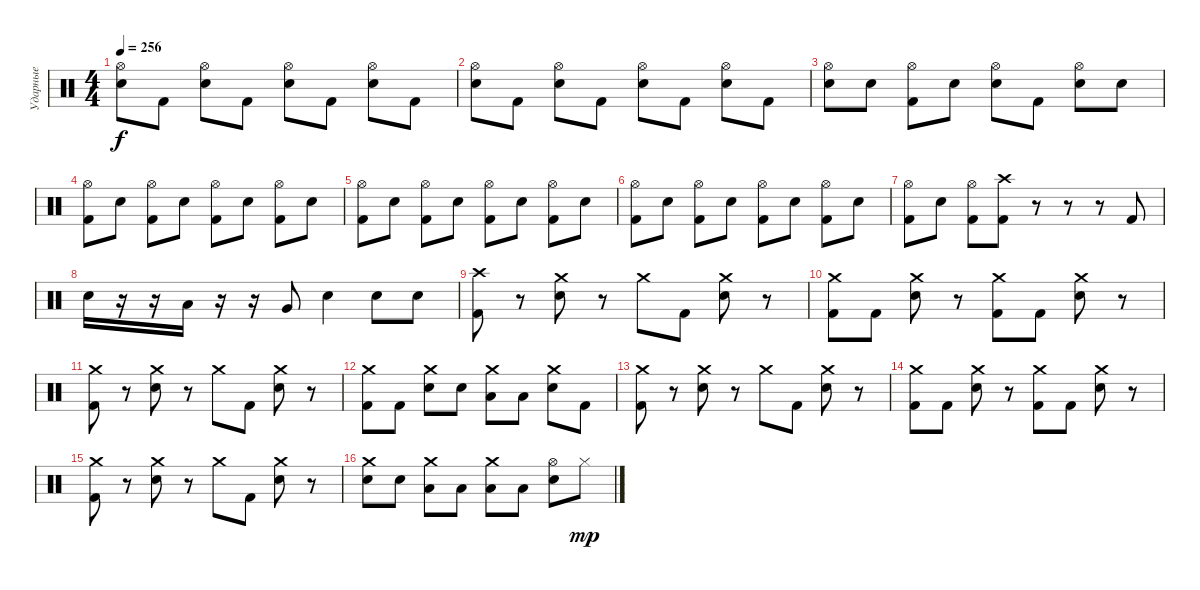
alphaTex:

\track ("Ударные" "Ударные") {instrument percussion}
\staff {score}
\articulation defaults
\ts (4 4)
\tempo 256
\clef neutral
\ks c
("Hi-Hat (open)" "Electric Snare (hit)").8{dy f} "Kick (hit) 2".8 ("Hi-Hat (open)" "Electric Snare (hit)").8 "Kick (hit) 2".8 ("Hi-Hat (open)" "Electric Snare (hit)").8 "Kick (hit) 2".8 ("Hi-Hat (open)" "Electric Snare (hit)").8 "Kick (hit) 2".8 |
("Hi-Hat (open)" "Electric Snare (hit)").8 "Kick (hit) 2".8 ("Hi-Hat (open)" "Electric Snare (hit)").8 "Kick (hit) 2".8 ("Hi-Hat (open)" "Electric Snare (hit)").8 "Kick (hit) 2".8 ("Hi-Hat (open)" "Electric Snare (hit)").8 "Kick (hit) 2".8 |
("Hi-Hat (open)" "Electric Snare (hit)").8 "Electric Snare (hit)".8 ("Hi-Hat (open)" "Kick (hit) 2").8 "Electric Snare (hit)".8 ("Hi-Hat (open)" "Electric Snare (hit)").8 "Kick (hit) 2".8 ("Hi-Hat (open)" "Electric Snare (hit)").8 "Electric Snare (hit)".8 |
("Hi-Hat (open)" "Kick (hit) 2").8 "Electric Snare (hit)".8 ("Hi-Hat (open)" "Kick (hit) 2").8 "Electric Snare (hit)".8 ("Hi-Hat (open)" "Kick (hit) 2").8 "Electric Snare (hit)".8 ("Hi-Hat (open)" "Kick (hit) 2").8 "Electric Snare (hit)".8 |
("Hi-Hat (open)" "Kick (hit) 2").8 "Electric Snare (hit)".8 ("Hi-Hat (open)" "Kick (hit) 2").8 "Electric Snare (hit)".8 ("Hi-Hat (open)" "Kick (hit) 2").8 "Electric Snare (hit)".8 ("Hi-Hat (open)" "Kick (hit) 2").8 "Electric Snare (hit)".8 |
("Hi-Hat (open)" "Kick (hit) 2").8 "Electric Snare (hit)".8 ("Hi-Hat (open)" "Kick (hit) 2").8 "Electric Snare (hit)".8 ("Hi-Hat (open)" "Kick (hit) 2").8 "Electric Snare (hit)".8 ("Hi-Hat (open)" "Kick (hit) 2").8 "Electric Snare (hit)".8 |
("Hi-Hat (open)" "Kick (hit) 2").8 "Electric Snare (hit)".8 ("Hi-Hat (open)" "Kick (hit) 2").8 ("Crash high (hit)" "Kick (hit) 2").8 r.8 r.8 r.8 "Kick (hit) 2".8 |
"Electric Snare (hit)".16 r.16 r.16 "Low Tom (hit)".16 r.16 r.16 "Very Low Tom (hit)".8 "Electric Snare (hit)".4 "Electric Snare (hit)".8 "Electric Snare (hit)".8 |
("Crash high (hit)" "Kick (hit) 2").8 r.8 ("Crash medium (hit)" "Electric Snare (hit)").8 r.8 "Crash medium (hit)".8 "Kick (hit) 2".8 ("Crash medium (hit)" "Electric Snare (hit)").8 r.8 |
("Crash medium (hit)" "Kick (hit) 2").8 "Kick (hit) 2".8 ("Crash medium (hit)" "Electric Snare (hit)").8 r.8 ("Crash medium (hit)" "Kick (hit) 2").8 "Kick (hit) 2".8 ("Crash medium (hit)" "Electric Snare (hit)").8 r.8 |
("Crash medium (hit)" "Kick (hit) 2").8 r.8 ("Crash medium (hit)" "Electric Snare (hit)").8 r.8 "Crash medium (hit)".8 "Kick (hit) 2".8 ("Crash medium (hit)" "Electric Snare (hit)").8 r.8 |
("Crash medium (hit)" "Kick (hit) 2").8 "Kick (hit) 2".8 ("Crash medium (hit)" "Electric Snare (hit)").8 "Electric Snare (hit)".8 ("Crash medium (hit)" "Low Tom (hit)").8 "Low Tom (hit)".8 ("Crash medium (hit)" "Electric Snare (hit)").8 "Kick (hit) 2".8 |
("Crash medium (hit)" "Kick (hit) 2").8 r.8 ("Crash medium (hit)" "Electric Snare (hit)").8 r.8 "Crash medium (hit)".8 "Kick (hit) 2".8 ("Crash medium (hit)" "Electric Snare (hit)").8 r.8 |
("Crash medium (hit)" "Kick (hit) 2").8 "Kick (hit) 2".8 ("Crash medium (hit)" "Electric Snare (hit)").8 r.8 ("Crash medium (hit)" "Kick (hit) 2").8 "Kick (hit) 2".8 ("Crash medium (hit)" "Electric Snare (hit)").8 r.8 |
("Crash medium (hit)" "Kick (hit) 2").8 r.8 ("Crash medium (hit)" "Electric Snare (hit)").8 r.8 "Crash medium (hit)".8 "Kick (hit) 2".8 ("Crash medium (hit)" "Electric Snare (hit)").8 r.8 |
("Crash medium (hit)" "Electric Snare (hit)").8 "Electric Snare (hit)".8 ("Crash medium (hit)" "Low Tom (hit)").8 "Low Tom (hit)".8 ("Crash medium (hit)" "Low Tom (hit)").8 "Low Tom (hit)".8 ("Hi-Hat (open)" "Electric Snare (hit)").8 "Hi-Hat (closed)".8{dy mp}
